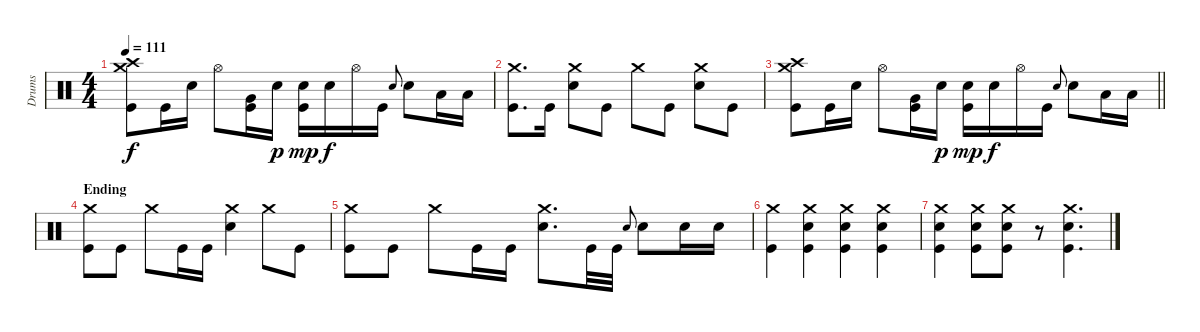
\track ("Drums" "Drums") {instrument percussion}
\staff {score}
\articulation defaults
\ts (4 4)
\tempo 111
\clef neutral
\ks c
("Crash medium (hit)" "Crash high (hit)" "Kick (hit)").8{dy f} "Kick (hit)".16 "Electric Snare (hit)".16 "Hi-Hat (open)".8 ("Very Low Tom (hit)" "Kick (hit)").16 "Electric Snare (hit)".16{dy p} ("Electric Snare (hit)" "Kick (hit)").16{dy mp} "Electric Snare (hit)".16{dy f} "Hi-Hat (open)".16 "Kick (hit)".16 "Electric Snare (hit)".8{gr onbeat} "Electric Snare (hit)".8 "Low Floor Tom (hit)".16 "Low Floor Tom (hit)".16 |
("Crash medium (hit)" "Kick (hit)").8{d} "Kick (hit)".16 ("Crash medium (hit)" "Electric Snare (hit)").8 "Kick (hit)".8 "Crash medium (hit)".8 "Kick (hit)".8 ("Crash medium (hit)" "Electric Snare (hit)").8 "Kick (hit)".8 |
\barLineRight lightlight
("Crash medium (hit)" "Crash high (hit)" "Kick (hit)").8 "Kick (hit)".16 "Electric Snare (hit)".16 "Hi-Hat (open)".8 ("Very Low Tom (hit)" "Kick (hit)").16 "Electric Snare (hit)".16{dy p} ("Electric Snare (hit)" "Kick (hit)").16{dy mp} "Electric Snare (hit)".16{dy f} "Hi-Hat (open)".16 "Kick (hit)".16 "Electric Snare (hit)".8{gr onbeat} "Electric Snare (hit)".8 "Low Floor Tom (hit)".16 "Low Floor Tom (hit)".16 |
\section ("" "Ending")
("Crash medium (hit)" "Kick (hit)").8 "Kick (hit)".8 "Crash medium (hit)".8 "Kick (hit)".16 "Kick (hit)".16 ("Crash medium (hit)" "Electric Snare (hit)").4 "Crash medium (hit)".8 "Kick (hit)".8 |
("Crash medium (hit)" "Kick (hit)").8 "Kick (hit)".8 "Crash medium (hit)".8 "Kick (hit)".16 "Kick (hit)".16 ("Crash medium (hit)" "Electric Snare (hit)").8{d} "Kick (hit)".32 "Kick (hit)".32 "Electric Snare (hit)".8{gr onbeat} "Electric Snare (hit)".8 "Electric Snare (hit)".16 "Electric Snare (hit)".16 |
("Crash medium (hit)" "Kick (hit)").4 ("Crash medium (hit)" "Electric Snare (hit)" "Kick (hit)").4 ("Crash medium (hit)" "Electric Snare (hit)" "Kick (hit)").4 ("Crash medium (hit)" "Electric Snare (hit)" "Kick (hit)").4 |
("Crash medium (hit)" "Electric Snare (hit)" "Kick (hit)").4 ("Crash medium (hit)" "Electric Snare (hit)" "Kick (hit)").8 ("Crash medium (hit)" "Electric Snare (hit)" "Kick (hit)").8 r.8 ("Crash medium (hit)" "Electric Snare (hit)" "Kick (hit)").4{d}
